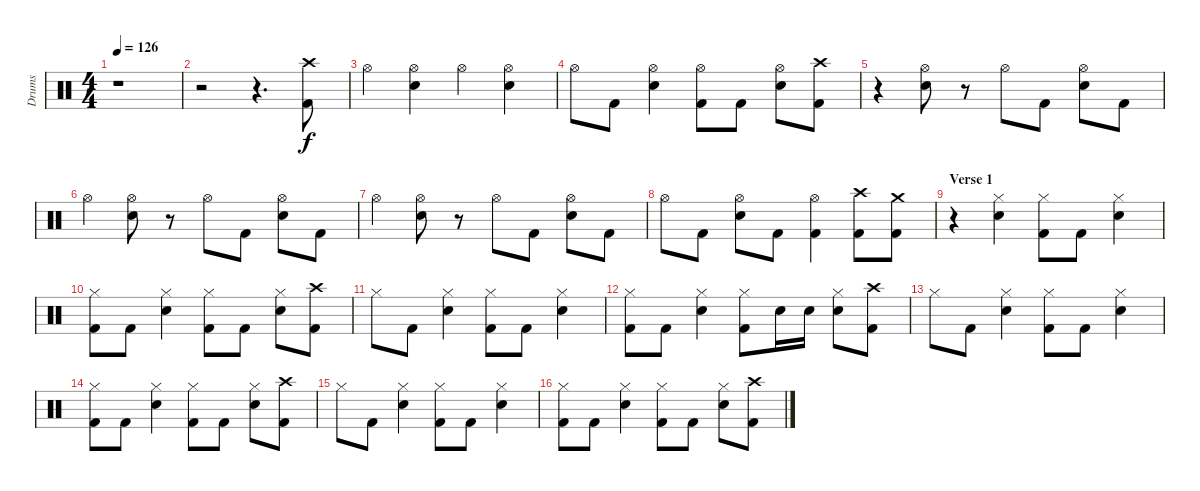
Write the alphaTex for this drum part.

\track ("Drums" "Drums") {instrument percussion}
\staff {score}
\articulation defaults
\ts (4 4)
\tempo 126
\clef neutral
\ks c
r.1{dy f} |
r.2 r.4{d} ("Crash high (hit)" "Kick (hit) 2").8 |
"Hi-Hat (open)".4 ("Hi-Hat (open)" "Snare (hit) 2").4 "Hi-Hat (open)".4 ("Hi-Hat (open)" "Snare (hit) 2").4 |
"Hi-Hat (open)".8 "Kick (hit) 2".8 ("Hi-Hat (open)" "Snare (hit) 2").4 ("Hi-Hat (open)" "Kick (hit) 2").8 "Kick (hit) 2".8 ("Hi-Hat (open)" "Snare (hit) 2").8 ("Crash high (hit)" "Kick (hit) 2").8 |
r.4 ("Hi-Hat (open)" "Snare (hit) 2").8 r.8 "Hi-Hat (open)".8 "Kick (hit) 2".8 ("Hi-Hat (open)" "Snare (hit) 2").8 "Kick (hit) 2".8 |
"Hi-Hat (open)".4 ("Hi-Hat (open)" "Snare (hit) 2").8 r.8 "Hi-Hat (open)".8 "Kick (hit) 2".8 ("Hi-Hat (open)" "Snare (hit) 2").8 "Kick (hit) 2".8 |
"Hi-Hat (open)".4 ("Hi-Hat (open)" "Snare (hit) 2").8 r.8 "Hi-Hat (open)".8 "Kick (hit) 2".8 ("Hi-Hat (open)" "Snare (hit) 2").8 "Kick (hit) 2".8 |
"Hi-Hat (open)".8 "Kick (hit) 2".8 ("Hi-Hat (open)" "Snare (hit) 2").8 "Kick (hit) 2".8 ("Hi-Hat (open)" "Kick (hit) 2").4 ("Crash high (hit)" "Kick (hit) 2").8 ("Crash medium (hit)" "Kick (hit) 2").8 |
\section ("" "Verse 1")
r.4 ("Hi-Hat (closed)" "Snare (hit) 2").4 ("Hi-Hat (closed)" "Kick (hit) 2").8 "Kick (hit) 2".8 ("Hi-Hat (closed)" "Snare (hit) 2").4 |
("Hi-Hat (closed)" "Kick (hit) 2").8 "Kick (hit) 2".8 ("Hi-Hat (closed)" "Snare (hit) 2").4 ("Hi-Hat (closed)" "Kick (hit) 2").8 "Kick (hit) 2".8 ("Hi-Hat (closed)" "Snare (hit) 2").8 ("Crash high (hit)" "Kick (hit) 2").8 |
"Hi-Hat (closed)".8 "Kick (hit) 2".8 ("Hi-Hat (closed)" "Snare (hit) 2").4 ("Hi-Hat (closed)" "Kick (hit) 2").8 "Kick (hit) 2".8 ("Hi-Hat (closed)" "Snare (hit) 2").4 |
("Hi-Hat (closed)" "Kick (hit) 2").8 "Kick (hit) 2".8 ("Hi-Hat (closed)" "Snare (hit) 2").4 ("Hi-Hat (closed)" "Kick (hit) 2").8 "Snare (hit) 2".16 "Snare (hit) 2".16 ("Hi-Hat (closed)" "Snare (hit) 2").8 ("Crash high (hit)" "Kick (hit) 2").8 |
"Hi-Hat (closed)".8 "Kick (hit) 2".8 ("Hi-Hat (closed)" "Snare (hit) 2").4 ("Hi-Hat (closed)" "Kick (hit) 2").8 "Kick (hit) 2".8 ("Hi-Hat (closed)" "Snare (hit) 2").4 |
("Hi-Hat (closed)" "Kick (hit) 2").8 "Kick (hit) 2".8 ("Hi-Hat (closed)" "Snare (hit) 2").4 ("Hi-Hat (closed)" "Kick (hit) 2").8 "Kick (hit) 2".8 ("Hi-Hat (closed)" "Snare (hit) 2").8 ("Crash high (hit)" "Kick (hit) 2").8 |
"Hi-Hat (closed)".8 "Kick (hit) 2".8 ("Hi-Hat (closed)" "Snare (hit) 2").4 ("Hi-Hat (closed)" "Kick (hit) 2").8 "Kick (hit) 2".8 ("Hi-Hat (closed)" "Snare (hit) 2").4 |
("Hi-Hat (closed)" "Kick (hit) 2").8 "Kick (hit) 2".8 ("Hi-Hat (closed)" "Snare (hit) 2").4 ("Hi-Hat (closed)" "Kick (hit) 2").8 "Kick (hit) 2".8 ("Hi-Hat (closed)" "Snare (hit) 2").8 ("Crash high (hit)" "Kick (hit) 2").8
